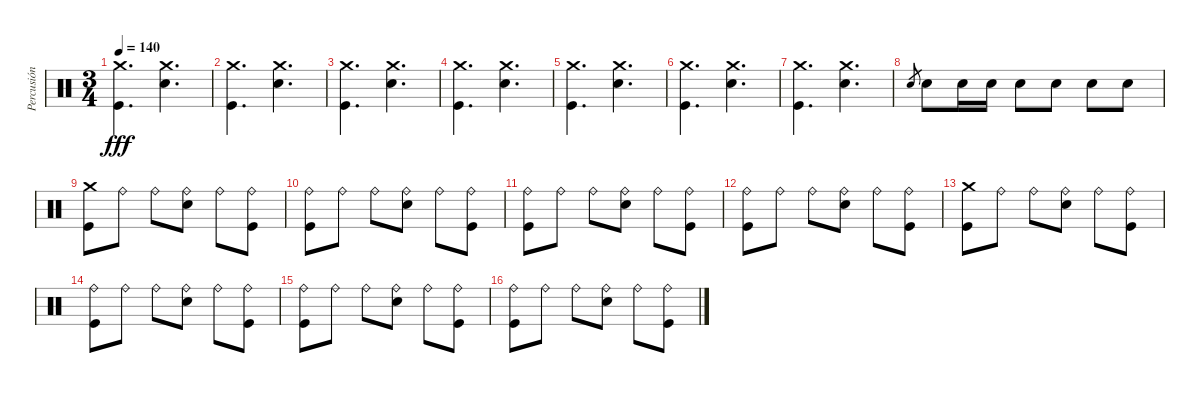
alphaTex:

\track ("Percusión" "Percusión") {instrument percussion}
\staff {score}
\articulation defaults
\ts (3 4)
\tempo 140
\clef neutral
\ks c
("Crash medium (hit)" "Kick (hit)").4{d dy fff} ("Crash medium (hit)" "Snare (hit) 2").4{d} |
("Crash medium (hit)" "Kick (hit)").4{d} ("Crash medium (hit)" "Snare (hit) 2").4{d} |
("Crash medium (hit)" "Kick (hit)").4{d} ("Crash medium (hit)" "Snare (hit) 2").4{d} |
("Crash medium (hit)" "Kick (hit)").4{d} ("Crash medium (hit)" "Snare (hit) 2").4{d} |
("Crash medium (hit)" "Kick (hit)").4{d} ("Crash medium (hit)" "Snare (hit) 2").4{d} |
("Crash medium (hit)" "Kick (hit)").4{d} ("Crash medium (hit)" "Snare (hit) 2").4{d} |
("Crash medium (hit)" "Kick (hit)").4{d} ("Crash medium (hit)" "Snare (hit) 2").4{d} |
"Snare (hit) 2".8{gr} "Snare (hit) 2".8 "Snare (hit) 2".16 "Snare (hit) 2".16 "Snare (hit) 2".8 "Snare (hit) 2".8 "Snare (hit) 2".8 "Snare (hit) 2".8 |
("Crash medium (hit)" "Kick (hit)").8 "Ride (bell)".8 "Ride (bell)".8 ("Ride (bell)" "Snare (hit) 2").8 "Ride (bell)".8 ("Ride (bell)" "Kick (hit)").8 |
("Ride (bell)" "Kick (hit)").8 "Ride (bell)".8 "Ride (bell)".8 ("Ride (bell)" "Snare (hit) 2").8 "Ride (bell)".8 ("Ride (bell)" "Kick (hit)").8 |
("Ride (bell)" "Kick (hit)").8 "Ride (bell)".8 "Ride (bell)".8 ("Ride (bell)" "Snare (hit) 2").8 "Ride (bell)".8 ("Ride (bell)" "Kick (hit)").8 |
("Ride (bell)" "Kick (hit)").8 "Ride (bell)".8 "Ride (bell)".8 ("Ride (bell)" "Snare (hit) 2").8 "Ride (bell)".8 ("Ride (bell)" "Kick (hit)").8 |
("Crash medium (hit)" "Kick (hit)").8 "Ride (bell)".8 "Ride (bell)".8 ("Ride (bell)" "Snare (hit) 2").8 "Ride (bell)".8 ("Ride (bell)" "Kick (hit)").8 |
("Ride (bell)" "Kick (hit)").8 "Ride (bell)".8 "Ride (bell)".8 ("Ride (bell)" "Snare (hit) 2").8 "Ride (bell)".8 ("Ride (bell)" "Kick (hit)").8 |
("Ride (bell)" "Kick (hit)").8 "Ride (bell)".8 "Ride (bell)".8 ("Ride (bell)" "Snare (hit) 2").8 "Ride (bell)".8 ("Ride (bell)" "Kick (hit)").8 |
("Ride (bell)" "Kick (hit)").8 "Ride (bell)".8 "Ride (bell)".8 ("Ride (bell)" "Snare (hit) 2").8 "Ride (bell)".8 ("Ride (bell)" "Kick (hit)").8
